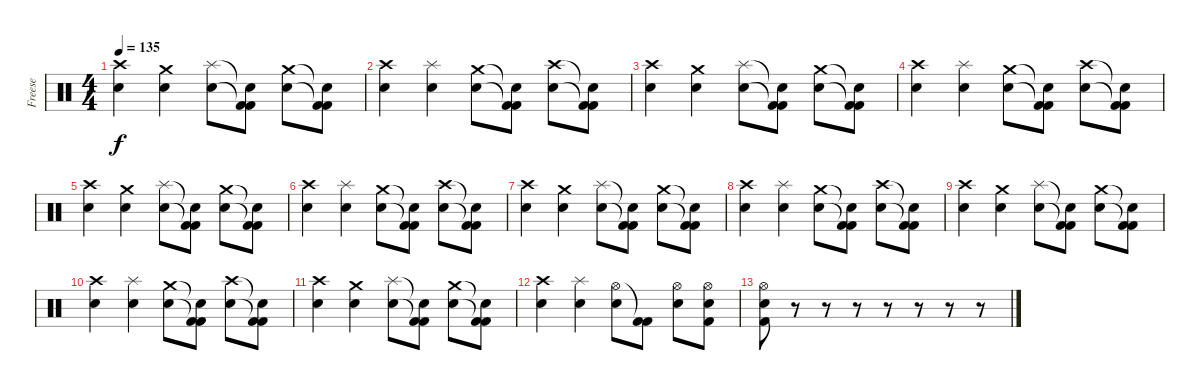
\track ("Freese" "Freese") {instrument percussion}
\staff {score}
\articulation defaults
\ts (4 4)
\tempo 135
\clef neutral
\ks c
("Crash high (hit)" "Electric Snare (hit)").4{dy f} ("Crash medium (hit)" "Electric Snare (hit)").4 ("Splash (hit)" "Electric Snare (hit)").8 ("Snare (hit)"{t} "Kick (hit) 2"{t} "Kick (hit) 2").8 ("Crash medium (hit)" "Electric Snare (hit)").8 ("Snare (hit)"{t} "Kick (hit) 2"{t} "Kick (hit) 2").8 |
("Crash high (hit)" "Electric Snare (hit)").4 ("Splash (hit)" "Electric Snare (hit)").4 ("Crash medium (hit)" "Electric Snare (hit)").8 ("Snare (hit)"{t} "Kick (hit) 2"{t} "Kick (hit) 2").8 ("Crash high (hit)" "Electric Snare (hit)").8 ("Snare (hit)"{t} "Kick (hit) 2"{t} "Kick (hit) 2").8 |
("Crash high (hit)" "Electric Snare (hit)").4 ("Crash medium (hit)" "Electric Snare (hit)").4 ("Splash (hit)" "Electric Snare (hit)").8 ("Snare (hit)"{t} "Kick (hit) 2"{t} "Kick (hit) 2").8 ("Crash medium (hit)" "Electric Snare (hit)").8 ("Snare (hit)"{t} "Kick (hit) 2"{t} "Kick (hit) 2").8 |
("Crash high (hit)" "Electric Snare (hit)").4 ("Splash (hit)" "Electric Snare (hit)").4 ("Crash medium (hit)" "Electric Snare (hit)").8 ("Snare (hit)"{t} "Kick (hit) 2"{t} "Kick (hit) 2").8 ("Crash high (hit)" "Electric Snare (hit)").8 ("Snare (hit)"{t} "Kick (hit) 2"{t} "Kick (hit) 2").8 |
("Crash high (hit)" "Electric Snare (hit)").4 ("Crash medium (hit)" "Electric Snare (hit)").4 ("Splash (hit)" "Electric Snare (hit)").8 ("Snare (hit)"{t} "Kick (hit) 2"{t} "Kick (hit) 2").8 ("Crash medium (hit)" "Electric Snare (hit)").8 ("Snare (hit)"{t} "Kick (hit) 2"{t} "Kick (hit) 2").8 |
("Crash high (hit)" "Electric Snare (hit)").4 ("Splash (hit)" "Electric Snare (hit)").4 ("Crash medium (hit)" "Electric Snare (hit)").8 ("Snare (hit)"{t} "Kick (hit) 2"{t} "Kick (hit) 2").8 ("Crash high (hit)" "Electric Snare (hit)").8 ("Snare (hit)"{t} "Kick (hit) 2"{t} "Kick (hit) 2").8 |
("Crash high (hit)" "Electric Snare (hit)").4 ("Crash medium (hit)" "Electric Snare (hit)").4 ("Splash (hit)" "Electric Snare (hit)").8 ("Snare (hit)"{t} "Kick (hit) 2"{t} "Kick (hit) 2").8 ("Crash medium (hit)" "Electric Snare (hit)").8 ("Snare (hit)"{t} "Kick (hit) 2"{t} "Kick (hit) 2").8 |
("Crash high (hit)" "Electric Snare (hit)").4 ("Splash (hit)" "Electric Snare (hit)").4 ("Crash medium (hit)" "Electric Snare (hit)").8 ("Snare (hit)"{t} "Kick (hit) 2"{t} "Kick (hit) 2").8 ("Crash high (hit)" "Electric Snare (hit)").8 ("Snare (hit)"{t} "Kick (hit) 2"{t} "Kick (hit) 2").8 |
("Crash high (hit)" "Electric Snare (hit)").4 ("Crash medium (hit)" "Electric Snare (hit)").4 ("Splash (hit)" "Electric Snare (hit)").8 ("Snare (hit)"{t} "Kick (hit) 2"{t} "Kick (hit) 2").8 ("Crash medium (hit)" "Electric Snare (hit)").8 ("Snare (hit)"{t} "Kick (hit) 2"{t} "Kick (hit) 2").8 |
("Crash high (hit)" "Electric Snare (hit)").4 ("Splash (hit)" "Electric Snare (hit)").4 ("Crash medium (hit)" "Electric Snare (hit)").8 ("Snare (hit)"{t} "Kick (hit) 2"{t} "Kick (hit) 2").8 ("Crash high (hit)" "Electric Snare (hit)").8 ("Snare (hit)"{t} "Kick (hit) 2"{t} "Kick (hit) 2").8 |
("Crash high (hit)" "Electric Snare (hit)").4 ("Crash medium (hit)" "Electric Snare (hit)").4 ("Splash (hit)" "Electric Snare (hit)").8 ("Snare (hit)"{t} "Kick (hit) 2"{t} "Kick (hit) 2").8 ("Crash medium (hit)" "Electric Snare (hit)").8 ("Snare (hit)"{t} "Kick (hit) 2"{t} "Kick (hit) 2").8 |
("Crash high (hit)" "Electric Snare (hit)").4 ("Splash (hit)" "Electric Snare (hit)").4 ("Hi-Hat (open)" "Electric Snare (hit)").8 ("Kick (hit) 2"{t} "Kick (hit) 2").8 ("Hi-Hat (open)" "Electric Snare (hit)").8 ("Hi-Hat (open)" "Electric Snare (hit)" "Kick (hit) 2").8 |
("Hi-Hat (open)" "Electric Snare (hit)" "Kick (hit) 2").8 r.8 r.8 r.8 r.8 r.8 r.8 r.8
